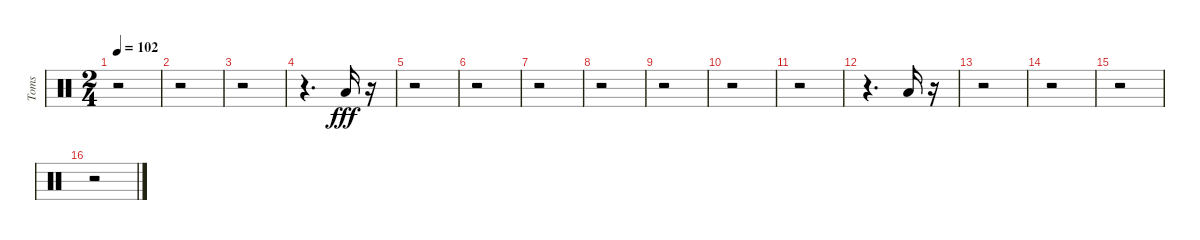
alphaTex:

\track ("Toms" "Toms") {instrument percussion}
\staff {score}
\articulation defaults
\ts (2 4)
\tempo 102
\clef neutral
\ks c
r.2{dy fff} |
r.2 |
r.2 |
r.4{d} "Low Floor Tom (hit)".16 r.16 |
r.2 |
r.2 |
r.2 |
r.2 |
r.2 |
r.2 |
r.2 |
r.4{d} "Low Floor Tom (hit)".16 r.16 |
r.2 |
r.2 |
r.2 |
r.2
